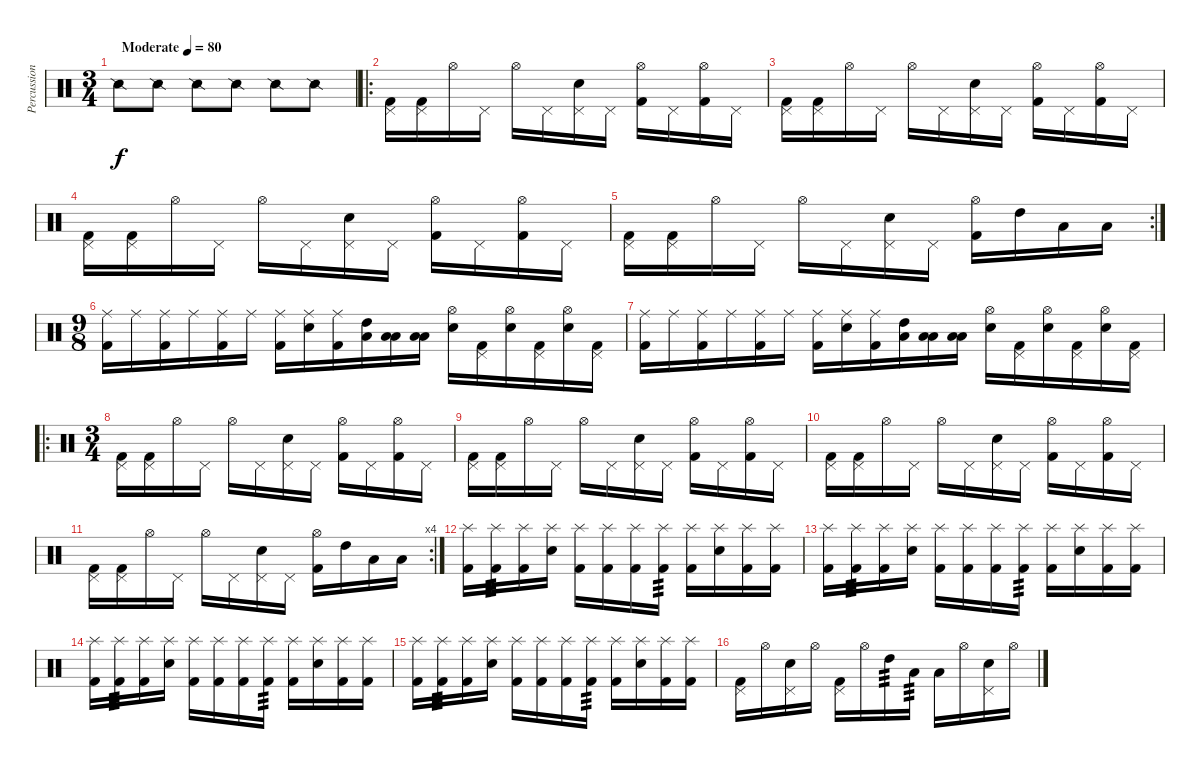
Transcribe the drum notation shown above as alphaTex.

\track ("Percussion" "Percussion") {instrument percussion}
\staff {score}
\articulation defaults
\ts (3 4)
\tempo (80 "Moderate")
\clef neutral
\ks c "Snare (side stick) 2".8{dy f} "Snare (side stick) 2".8 "Snare (side stick) 2".8 "Snare (side stick) 2".8 "Snare (side stick) 2".8 "Snare (side stick) 2".8
|
\ro
("Pedal Hi-Hat (hit)" "Kick (hit) 2").16 ("Pedal Hi-Hat (hit)" "Kick (hit) 2").16 "Hi-Hat (open)".16 "Pedal Hi-Hat (hit)".16 "Hi-Hat (open)".16 "Pedal Hi-Hat (hit)".16 ("Pedal Hi-Hat (hit)" "Electric Snare (hit)").16 "Pedal Hi-Hat (hit)".16 ("Hi-Hat (open)" "Kick (hit) 2").16 "Pedal Hi-Hat (hit)".16 ("Hi-Hat (open)" "Kick (hit) 2").16 "Pedal Hi-Hat (hit)".16 |
("Pedal Hi-Hat (hit)" "Kick (hit) 2").16 ("Pedal Hi-Hat (hit)" "Kick (hit) 2").16 "Hi-Hat (open)".16 "Pedal Hi-Hat (hit)".16 "Hi-Hat (open)".16 "Pedal Hi-Hat (hit)".16 ("Pedal Hi-Hat (hit)" "Electric Snare (hit)").16 "Pedal Hi-Hat (hit)".16 ("Hi-Hat (open)" "Kick (hit) 2").16 "Pedal Hi-Hat (hit)".16 ("Hi-Hat (open)" "Kick (hit) 2").16 "Pedal Hi-Hat (hit)".16 |
("Pedal Hi-Hat (hit)" "Kick (hit) 2").16 ("Pedal Hi-Hat (hit)" "Kick (hit) 2").16 "Hi-Hat (open)".16 "Pedal Hi-Hat (hit)".16 "Hi-Hat (open)".16 "Pedal Hi-Hat (hit)".16 ("Pedal Hi-Hat (hit)" "Electric Snare (hit)").16 "Pedal Hi-Hat (hit)".16 ("Hi-Hat (open)" "Kick (hit) 2").16 "Pedal Hi-Hat (hit)".16 ("Hi-Hat (open)" "Kick (hit) 2").16 "Pedal Hi-Hat (hit)".16 |
\rc 2
("Pedal Hi-Hat (hit)" "Kick (hit) 2").16 ("Pedal Hi-Hat (hit)" "Kick (hit) 2").16 "Hi-Hat (open)".16 "Pedal Hi-Hat (hit)".16 "Hi-Hat (open)".16 "Pedal Hi-Hat (hit)".16 ("Pedal Hi-Hat (hit)" "Electric Snare (hit)").16 "Pedal Hi-Hat (hit)".16 ("Hi-Hat (open)" "Kick (hit) 2").16 "High Tom (hit)".16 "Low Tom (hit)".16 "Low Floor Tom (hit)".16 |
\ts (9 8)
("Ride (middle)" "Kick (hit) 2").16 "Ride (middle)".16 ("Ride (middle)" "Kick (hit) 2").16 "Ride (middle)".16 ("Ride (middle)" "Kick (hit) 2").16 "Ride (middle)".16 ("Ride (middle)" "Kick (hit) 2").16 ("Ride (middle)" "Electric Snare (hit)").16 ("Ride (middle)" "Kick (hit) 2").16 ("High Tom (hit)" "Low Tom (hit)").16 ("Low Tom (hit)" "Low Floor Tom (hit)").16 ("Low Floor Tom (hit)" "Low Floor Tom (hit)").16 ("Hi-Hat (open)" "Electric Snare (hit)").16 ("Pedal Hi-Hat (hit)" "Kick (hit) 2").16 ("Hi-Hat (open)" "Electric Snare (hit)").16 ("Pedal Hi-Hat (hit)" "Kick (hit) 2").16 ("Hi-Hat (open)" "Electric Snare (hit)").16 ("Pedal Hi-Hat (hit)" "Kick (hit) 2").16 |
("Ride (middle)" "Kick (hit) 2").16 "Ride (middle)".16 ("Ride (middle)" "Kick (hit) 2").16 "Ride (middle)".16 ("Ride (middle)" "Kick (hit) 2").16 "Ride (middle)".16 ("Ride (middle)" "Kick (hit) 2").16 ("Ride (middle)" "Electric Snare (hit)").16 ("Ride (middle)" "Kick (hit) 2").16 ("High Tom (hit)" "Low Tom (hit)").16 ("Low Tom (hit)" "Low Floor Tom (hit)").16 ("Low Floor Tom (hit)" "Low Floor Tom (hit)").16 ("Hi-Hat (open)" "Electric Snare (hit)").16 ("Pedal Hi-Hat (hit)" "Kick (hit) 2").16 ("Hi-Hat (open)" "Electric Snare (hit)").16 ("Pedal Hi-Hat (hit)" "Kick (hit) 2").16 ("Hi-Hat (open)" "Electric Snare (hit)").16 ("Pedal Hi-Hat (hit)" "Kick (hit) 2").16 |
\ro
\ts (3 4)
("Pedal Hi-Hat (hit)" "Kick (hit) 2").16 ("Pedal Hi-Hat (hit)" "Kick (hit) 2").16 "Hi-Hat (open)".16 "Pedal Hi-Hat (hit)".16 "Hi-Hat (open)".16 "Pedal Hi-Hat (hit)".16 ("Pedal Hi-Hat (hit)" "Electric Snare (hit)").16 "Pedal Hi-Hat (hit)".16 ("Hi-Hat (open)" "Kick (hit) 2").16 "Pedal Hi-Hat (hit)".16 ("Hi-Hat (open)" "Kick (hit) 2").16 "Pedal Hi-Hat (hit)".16 |
("Pedal Hi-Hat (hit)" "Kick (hit) 2").16 ("Pedal Hi-Hat (hit)" "Kick (hit) 2").16 "Hi-Hat (open)".16 "Pedal Hi-Hat (hit)".16 "Hi-Hat (open)".16 "Pedal Hi-Hat (hit)".16 ("Pedal Hi-Hat (hit)" "Electric Snare (hit)").16 "Pedal Hi-Hat (hit)".16 ("Hi-Hat (open)" "Kick (hit) 2").16 "Pedal Hi-Hat (hit)".16 ("Hi-Hat (open)" "Kick (hit) 2").16 "Pedal Hi-Hat (hit)".16 |
("Pedal Hi-Hat (hit)" "Kick (hit) 2").16 ("Pedal Hi-Hat (hit)" "Kick (hit) 2").16 "Hi-Hat (open)".16 "Pedal Hi-Hat (hit)".16 "Hi-Hat (open)".16 "Pedal Hi-Hat (hit)".16 ("Pedal Hi-Hat (hit)" "Electric Snare (hit)").16 "Pedal Hi-Hat (hit)".16 ("Hi-Hat (open)" "Kick (hit) 2").16 "Pedal Hi-Hat (hit)".16 ("Hi-Hat (open)" "Kick (hit) 2").16 "Pedal Hi-Hat (hit)".16 |
\rc 4
("Pedal Hi-Hat (hit)" "Kick (hit) 2").16 ("Pedal Hi-Hat (hit)" "Kick (hit) 2").16 "Hi-Hat (open)".16 "Pedal Hi-Hat (hit)".16 "Hi-Hat (open)".16 "Pedal Hi-Hat (hit)".16 ("Pedal Hi-Hat (hit)" "Electric Snare (hit)").16 "Pedal Hi-Hat (hit)".16 ("Hi-Hat (open)" "Kick (hit) 2").16 "High Tom (hit)".16 "Low Tom (hit)".16 "Low Floor Tom (hit)".16 |
("Splash (hit)" "Kick (hit) 2").16 ("Splash (hit)" "Kick (hit) 2").16{tp 3} ("Splash (hit)" "Kick (hit) 2").16 ("Splash (hit)" "Electric Snare (hit)").16 ("Splash (hit)" "Kick (hit) 2").16 ("Splash (hit)" "Kick (hit) 2").16 ("Splash (hit)" "Kick (hit) 2").16 ("Splash (hit)" "Kick (hit) 2").16{tp 3} ("Splash (hit)" "Kick (hit) 2").16 ("Splash (hit)" "Electric Snare (hit)").16 ("Splash (hit)" "Kick (hit) 2").16 ("Splash (hit)" "Kick (hit) 2").16 |
("Splash (hit)" "Kick (hit) 2").16 ("Splash (hit)" "Kick (hit) 2").16{tp 3} ("Splash (hit)" "Kick (hit) 2").16 ("Splash (hit)" "Electric Snare (hit)").16 ("Splash (hit)" "Kick (hit) 2").16 ("Splash (hit)" "Kick (hit) 2").16 ("Splash (hit)" "Kick (hit) 2").16 ("Splash (hit)" "Kick (hit) 2").16{tp 3} ("Splash (hit)" "Kick (hit) 2").16 ("Splash (hit)" "Electric Snare (hit)").16 ("Splash (hit)" "Kick (hit) 2").16 ("Splash (hit)" "Kick (hit) 2").16 |
("Splash (hit)" "Kick (hit) 2").16 ("Splash (hit)" "Kick (hit) 2").16{tp 3} ("Splash (hit)" "Kick (hit) 2").16 ("Splash (hit)" "Electric Snare (hit)").16 ("Splash (hit)" "Kick (hit) 2").16 ("Splash (hit)" "Kick (hit) 2").16 ("Splash (hit)" "Kick (hit) 2").16 ("Splash (hit)" "Kick (hit) 2").16{tp 3} ("Splash (hit)" "Kick (hit) 2").16 ("Splash (hit)" "Electric Snare (hit)").16 ("Splash (hit)" "Kick (hit) 2").16 ("Splash (hit)" "Kick (hit) 2").16 |
("Splash (hit)" "Kick (hit) 2").16 ("Splash (hit)" "Kick (hit) 2").16{tp 3} ("Splash (hit)" "Kick (hit) 2").16 ("Splash (hit)" "Electric Snare (hit)").16 ("Splash (hit)" "Kick (hit) 2").16 ("Splash (hit)" "Kick (hit) 2").16 ("Splash (hit)" "Kick (hit) 2").16 ("Splash (hit)" "Kick (hit) 2").16{tp 3} ("Splash (hit)" "Kick (hit) 2").16 ("Splash (hit)" "Electric Snare (hit)").16 ("Splash (hit)" "Kick (hit) 2").16 ("Splash (hit)" "Kick (hit) 2").16 |
("Pedal Hi-Hat (hit)" "Kick (hit) 2").16 "Hi-Hat (open)".16 ("Pedal Hi-Hat (hit)" "Electric Snare (hit)").16 "Hi-Hat (open)".16 ("Pedal Hi-Hat (hit)" "Kick (hit) 2").16 "Hi-Hat (open)".16 "High Tom (hit)".16{tp 3} "Low Tom (hit)".16{tp 3} "Low Floor Tom (hit)".16 "Hi-Hat (open)".16 ("Pedal Hi-Hat (hit)" "Electric Snare (hit)").16 "Hi-Hat (open)".16
